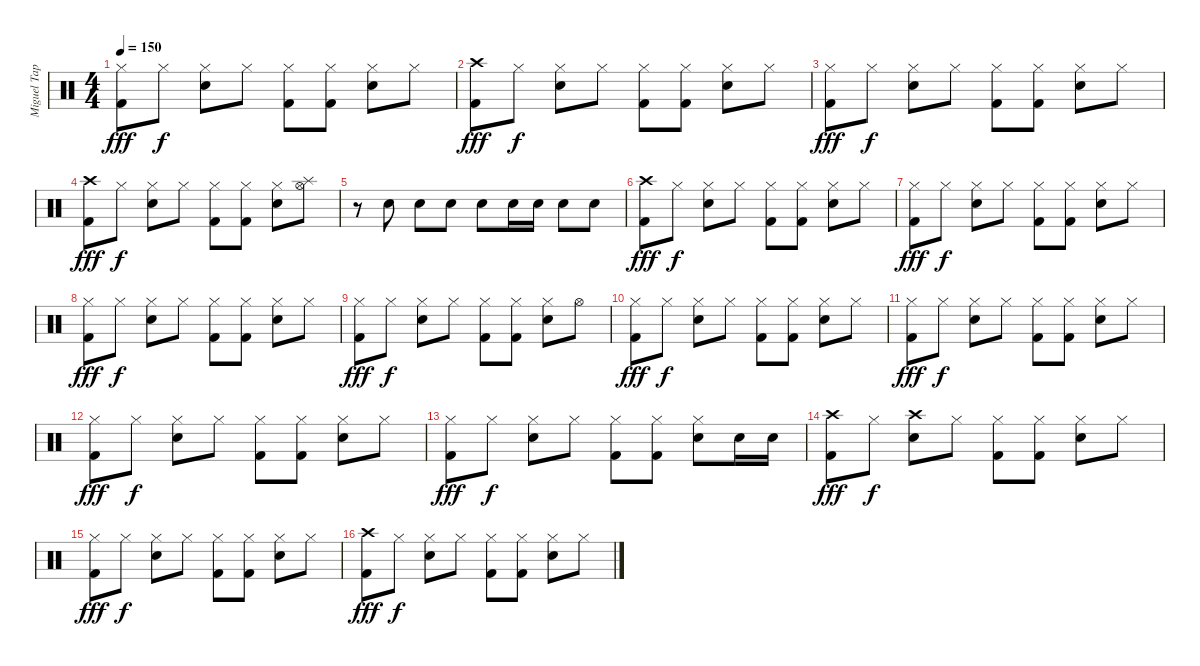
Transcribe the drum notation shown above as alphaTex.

\track ("Miguel Tapia" "Miguel Tap") {instrument percussion}
\staff {score}
\articulation defaults
\ts (4 4)
\tempo 150
\clef neutral
\ks c
("Hi-Hat (closed)" "Kick (hit) 2").8{dy fff} "Hi-Hat (closed)".8{dy f} ("Hi-Hat (closed)" "Snare (hit) 2").8 "Hi-Hat (closed)".8 ("Hi-Hat (closed)" "Kick (hit) 2").8 ("Hi-Hat (closed)" "Kick (hit) 2").8 ("Hi-Hat (closed)" "Snare (hit) 2").8 "Hi-Hat (closed)".8 |
("Crash high (hit)" "Kick (hit) 2").8{dy fff} "Hi-Hat (closed)".8{dy f} ("Hi-Hat (closed)" "Snare (hit) 2").8 "Hi-Hat (closed)".8 ("Hi-Hat (closed)" "Kick (hit) 2").8 ("Hi-Hat (closed)" "Kick (hit) 2").8 ("Hi-Hat (closed)" "Snare (hit) 2").8 "Hi-Hat (closed)".8 |
("Hi-Hat (closed)" "Kick (hit) 2").8{dy fff} "Hi-Hat (closed)".8{dy f} ("Hi-Hat (closed)" "Snare (hit) 2").8 "Hi-Hat (closed)".8 ("Hi-Hat (closed)" "Kick (hit) 2").8 ("Hi-Hat (closed)" "Kick (hit) 2").8 ("Hi-Hat (closed)" "Snare (hit) 2").8 "Hi-Hat (closed)".8 |
("Crash high (hit)" "Kick (hit) 2").8{dy fff} "Hi-Hat (closed)".8{dy f} ("Hi-Hat (closed)" "Snare (hit) 2").8 "Hi-Hat (closed)".8 ("Hi-Hat (closed)" "Kick (hit) 2").8 ("Hi-Hat (closed)" "Kick (hit) 2").8 ("Hi-Hat (closed)" "Snare (hit) 2").8 ("Hi-Hat (open)" "Splash (hit)").8 |
r.8 "Snare (hit) 2".8 "Snare (hit) 2".8 "Snare (hit) 2".8 "Snare (hit) 2".8 "Snare (hit) 2".16 "Snare (hit) 2".16 "Snare (hit) 2".8 "Snare (hit) 2".8 |
("Crash high (hit)" "Kick (hit) 2").8{dy fff} "Hi-Hat (closed)".8{dy f} ("Hi-Hat (closed)" "Snare (hit) 2").8 "Hi-Hat (closed)".8 ("Hi-Hat (closed)" "Kick (hit) 2").8 ("Hi-Hat (closed)" "Kick (hit) 2").8 ("Hi-Hat (closed)" "Snare (hit) 2").8 "Hi-Hat (closed)".8 |
("Hi-Hat (closed)" "Kick (hit) 2").8{dy fff} "Hi-Hat (closed)".8{dy f} ("Hi-Hat (closed)" "Snare (hit) 2").8 "Hi-Hat (closed)".8 ("Hi-Hat (closed)" "Kick (hit) 2").8 ("Hi-Hat (closed)" "Kick (hit) 2").8 ("Hi-Hat (closed)" "Snare (hit) 2").8 "Hi-Hat (closed)".8 |
("Hi-Hat (closed)" "Kick (hit) 2").8{dy fff} "Hi-Hat (closed)".8{dy f} ("Hi-Hat (closed)" "Snare (hit) 2").8 "Hi-Hat (closed)".8 ("Hi-Hat (closed)" "Kick (hit) 2").8 ("Hi-Hat (closed)" "Kick (hit) 2").8 ("Hi-Hat (closed)" "Snare (hit) 2").8 "Hi-Hat (closed)".8 |
("Hi-Hat (closed)" "Kick (hit) 2").8{dy fff} "Hi-Hat (closed)".8{dy f} ("Hi-Hat (closed)" "Snare (hit) 2").8 "Hi-Hat (closed)".8 ("Hi-Hat (closed)" "Kick (hit) 2").8 ("Hi-Hat (closed)" "Kick (hit) 2").8 ("Hi-Hat (closed)" "Snare (hit) 2").8 "Hi-Hat (open)".8 |
("Hi-Hat (closed)" "Kick (hit) 2").8{dy fff} "Hi-Hat (closed)".8{dy f} ("Hi-Hat (closed)" "Snare (hit) 2").8 "Hi-Hat (closed)".8 ("Hi-Hat (closed)" "Kick (hit) 2").8 ("Hi-Hat (closed)" "Kick (hit) 2").8 ("Hi-Hat (closed)" "Snare (hit) 2").8 "Hi-Hat (closed)".8 |
("Hi-Hat (closed)" "Kick (hit) 2").8{dy fff} "Hi-Hat (closed)".8{dy f} ("Hi-Hat (closed)" "Snare (hit) 2").8 "Hi-Hat (closed)".8 ("Hi-Hat (closed)" "Kick (hit) 2").8 ("Hi-Hat (closed)" "Kick (hit) 2").8 ("Hi-Hat (closed)" "Snare (hit) 2").8 "Hi-Hat (closed)".8 |
("Hi-Hat (closed)" "Kick (hit) 2").8{dy fff} "Hi-Hat (closed)".8{dy f} ("Hi-Hat (closed)" "Snare (hit) 2").8 "Hi-Hat (closed)".8 ("Hi-Hat (closed)" "Kick (hit) 2").8 ("Hi-Hat (closed)" "Kick (hit) 2").8 ("Hi-Hat (closed)" "Snare (hit) 2").8 "Hi-Hat (closed)".8 |
("Hi-Hat (closed)" "Kick (hit) 2").8{dy fff} "Hi-Hat (closed)".8{dy f} ("Hi-Hat (closed)" "Snare (hit) 2").8 "Hi-Hat (closed)".8 ("Hi-Hat (closed)" "Kick (hit) 2").8 ("Hi-Hat (closed)" "Kick (hit) 2").8 ("Hi-Hat (closed)" "Snare (hit) 2").8 "Snare (hit) 2".16 "Snare (hit) 2".16 |
("Crash high (hit)" "Kick (hit) 2").8{dy fff} "Hi-Hat (closed)".8{dy f} ("Crash high (hit)" "Snare (hit) 2").8 "Hi-Hat (closed)".8 ("Hi-Hat (closed)" "Kick (hit) 2").8 ("Hi-Hat (closed)" "Kick (hit) 2").8 ("Hi-Hat (closed)" "Snare (hit) 2").8 "Hi-Hat (closed)".8 |
("Hi-Hat (closed)" "Kick (hit) 2").8{dy fff} "Hi-Hat (closed)".8{dy f} ("Hi-Hat (closed)" "Snare (hit) 2").8 "Hi-Hat (closed)".8 ("Hi-Hat (closed)" "Kick (hit) 2").8 ("Hi-Hat (closed)" "Kick (hit) 2").8 ("Hi-Hat (closed)" "Snare (hit) 2").8 "Hi-Hat (closed)".8 |
("Crash high (hit)" "Kick (hit) 2").8{dy fff} "Hi-Hat (closed)".8{dy f} ("Hi-Hat (closed)" "Snare (hit) 2").8 "Hi-Hat (closed)".8 ("Hi-Hat (closed)" "Kick (hit) 2").8 ("Hi-Hat (closed)" "Kick (hit) 2").8 ("Hi-Hat (closed)" "Snare (hit) 2").8 "Hi-Hat (closed)".8
